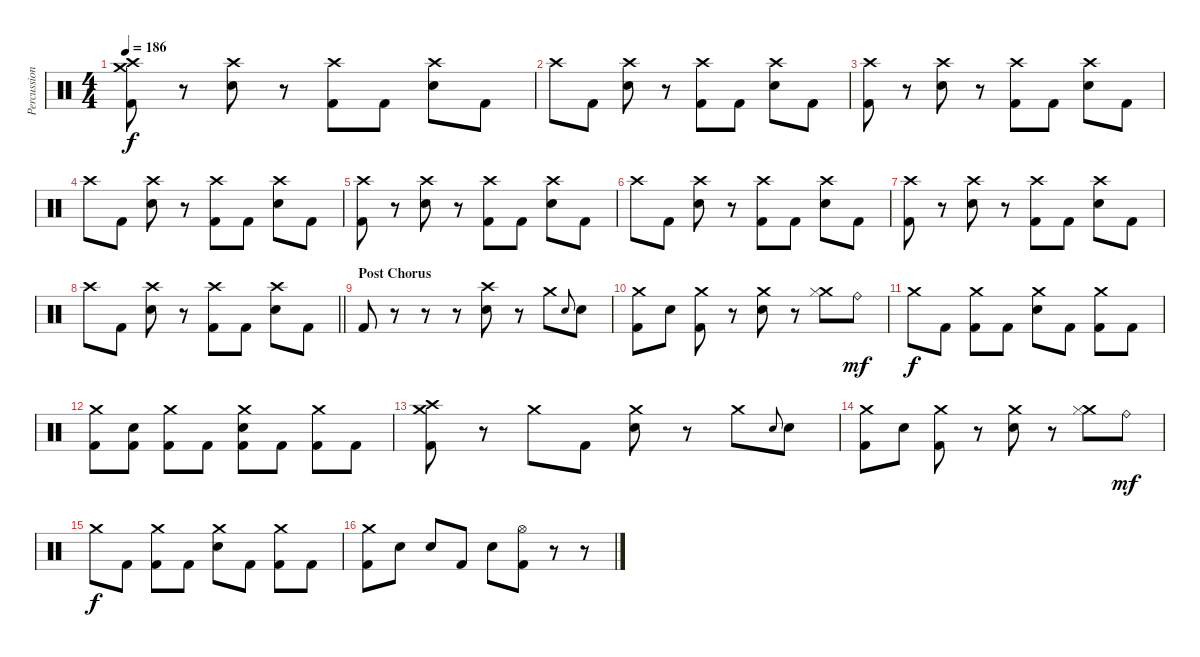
\track ("Percussion" "Percussion") {instrument percussion}
\staff {score}
\articulation defaults
\ts (4 4)
\tempo 186
\clef neutral
\ks c
("Crash high (hit)" "Crash medium (hit)" "Kick (hit) 2").8{dy f} r.8 ("Crash high (hit)" "Electric Snare (hit)").8 r.8 ("Crash high (hit)" "Kick (hit) 2").8 "Kick (hit) 2".8 ("Crash high (hit)" "Electric Snare (hit)").8 "Kick (hit) 2".8 |
"Crash high (hit)".8 "Kick (hit) 2".8 ("Crash high (hit)" "Electric Snare (hit)").8 r.8 ("Crash high (hit)" "Kick (hit) 2").8 "Kick (hit) 2".8 ("Crash high (hit)" "Electric Snare (hit)").8 "Kick (hit) 2".8 |
("Crash high (hit)" "Kick (hit) 2").8 r.8 ("Crash high (hit)" "Electric Snare (hit)").8 r.8 ("Crash high (hit)" "Kick (hit) 2").8 "Kick (hit) 2".8 ("Crash high (hit)" "Electric Snare (hit)").8 "Kick (hit) 2".8 |
"Crash high (hit)".8 "Kick (hit) 2".8 ("Crash high (hit)" "Electric Snare (hit)").8 r.8 ("Crash high (hit)" "Kick (hit) 2").8 "Kick (hit) 2".8 ("Crash high (hit)" "Electric Snare (hit)").8 "Kick (hit) 2".8 |
("Crash high (hit)" "Kick (hit) 2").8 r.8 ("Crash high (hit)" "Electric Snare (hit)").8 r.8 ("Crash high (hit)" "Kick (hit) 2").8 "Kick (hit) 2".8 ("Crash high (hit)" "Electric Snare (hit)").8 "Kick (hit) 2".8 |
"Crash high (hit)".8 "Kick (hit) 2".8 ("Crash high (hit)" "Electric Snare (hit)").8 r.8 ("Crash high (hit)" "Kick (hit) 2").8 "Kick (hit) 2".8 ("Crash high (hit)" "Electric Snare (hit)").8 "Kick (hit) 2".8 |
("Crash high (hit)" "Kick (hit) 2").8 r.8 ("Crash high (hit)" "Electric Snare (hit)").8 r.8 ("Crash high (hit)" "Kick (hit) 2").8 "Kick (hit) 2".8 ("Crash high (hit)" "Electric Snare (hit)").8 "Kick (hit) 2".8 |
\barLineRight lightlight "Crash high (hit)".8 "Kick (hit) 2".8
("Crash high (hit)" "Electric Snare (hit)").8 r.8 ("Crash high (hit)" "Kick (hit) 2").8 "Kick (hit) 2".8 ("Crash high (hit)" "Electric Snare (hit)").8 "Kick (hit) 2".8 |
\section ("" "Post Chorus")
"Kick (hit) 2".8 r.8 r.8 r.8 ("Crash high (hit)" "Electric Snare (hit)").8 r.8 "Crash medium (hit)".8 "Electric Snare (hit)".8{gr onbeat} "Electric Snare (hit)".8 |
("Crash medium (hit)" "Kick (hit) 2").8 "Electric Snare (hit)".8 ("Crash medium (hit)" "Kick (hit) 2").8 r.8 ("Crash medium (hit)" "Electric Snare (hit)").8 r.8 ("Crash medium (hit)" "Hi-Hat (closed)").8 "Ride (bell)".8{dy mf} |
"Crash medium (hit)".8{dy f} "Kick (hit) 2".8 ("Crash medium (hit)" "Kick (hit) 2").8 "Kick (hit) 2".8 ("Crash medium (hit)" "Electric Snare (hit)").8 "Kick (hit) 2".8 ("Crash medium (hit)" "Kick (hit) 2").8 "Kick (hit) 2".8 |
("Crash medium (hit)" "Kick (hit) 2").8 ("Electric Snare (hit)" "Kick (hit) 2").8 ("Crash medium (hit)" "Kick (hit) 2").8 "Kick (hit) 2".8 ("Crash medium (hit)" "Electric Snare (hit)" "Kick (hit) 2").8 "Kick (hit) 2".8 ("Crash medium (hit)" "Kick (hit) 2").8 "Kick (hit) 2".8 |
("Crash high (hit)" "Crash medium (hit)" "Kick (hit) 2").8 r.8 "Crash medium (hit)".8 "Kick (hit) 2".8 ("Crash medium (hit)" "Electric Snare (hit)").8 r.8 "Crash medium (hit)".8 "Electric Snare (hit)".8{gr onbeat} "Electric Snare (hit)".8 |
("Crash medium (hit)" "Kick (hit) 2").8 "Electric Snare (hit)".8 ("Crash medium (hit)" "Kick (hit) 2").8 r.8 ("Crash medium (hit)" "Electric Snare (hit)").8 r.8 ("Crash medium (hit)" "Hi-Hat (closed)").8 "Ride (bell)".8{dy mf} |
"Crash medium (hit)".8{dy f} "Kick (hit) 2".8 ("Crash medium (hit)" "Kick (hit) 2").8 "Kick (hit) 2".8 ("Crash medium (hit)" "Electric Snare (hit)").8 "Kick (hit) 2".8 ("Crash medium (hit)" "Kick (hit) 2").8 "Kick (hit) 2".8 |
("Crash medium (hit)" "Kick (hit) 2").8 "Electric Snare (hit)".8 "Electric Snare (hit)".8 "Kick (hit) 2".8 "Electric Snare (hit)".8 ("Hi-Hat (open)" "Kick (hit) 2").8 r.8 r.8
